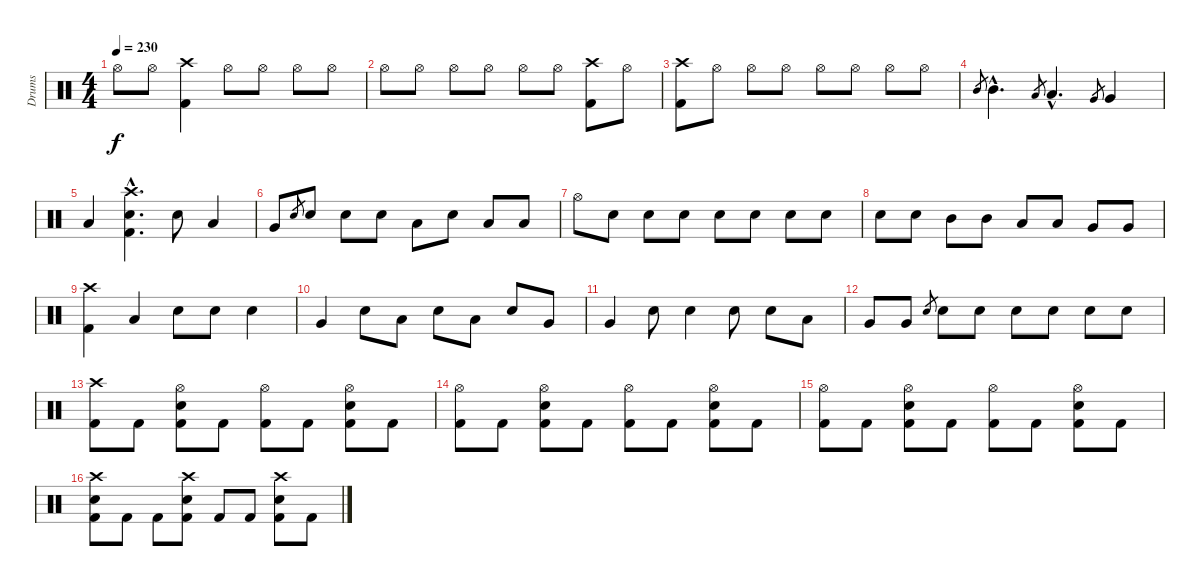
\track ("Drums" "Drums") {instrument percussion}
\staff {score}
\articulation defaults
\ts (4 4)
\tempo 230
\clef neutral
\ks c "Hi-Hat (open)".8{dy f} "Hi-Hat (open)".8
("Crash high (hit)" "Kick (hit) 2").4 "Hi-Hat (open)".8 "Hi-Hat (open)".8 "Hi-Hat (open)".8 "Hi-Hat (open)".8 |
"Hi-Hat (open)".8 "Hi-Hat (open)".8 "Hi-Hat (open)".8 "Hi-Hat (open)".8 "Hi-Hat (open)".8 "Hi-Hat (open)".8 ("Crash high (hit)" "Kick (hit) 2").8 "Hi-Hat (open)".8 |
("Crash high (hit)" "Kick (hit) 2").8 "Hi-Hat (open)".8 "Hi-Hat (open)".8 "Hi-Hat (open)".8 "Hi-Hat (open)".8 "Hi-Hat (open)".8 "Hi-Hat (open)".8 "Hi-Hat (open)".8 |
"Mid Tom (hit)".8{gr} "Mid Tom (hit)"{hac}.4{d} "Low Tom (hit)".8{gr} "Low Tom (hit)"{hac}.4{d} "Very Low Tom (hit)".8{gr} "Very Low Tom (hit)".4 |
"Low Tom (hit)".4 ("Crash high (hit)"{hac} "Electric Snare (hit)"{hac} "Kick (hit) 2"{hac}).4{d} "Electric Snare (hit)".8 "Low Tom (hit)".4 |
"Very Low Tom (hit)".8 "Electric Snare (hit)".8{gr} "Electric Snare (hit)".8 "Electric Snare (hit)".8 "Electric Snare (hit)".8 "Low Tom (hit)".8 "Electric Snare (hit)".8 "Low Tom (hit)".8 "Low Tom (hit)".8 |
"Hi-Hat (open)".8 "Electric Snare (hit)".8 "Electric Snare (hit)".8 "Electric Snare (hit)".8 "Electric Snare (hit)".8 "Electric Snare (hit)".8 "Electric Snare (hit)".8 "Electric Snare (hit)".8 |
"Electric Snare (hit)".8 "Electric Snare (hit)".8 "Mid Tom (hit)".8 "Mid Tom (hit)".8 "Low Tom (hit)".8 "Low Tom (hit)".8 "Very Low Tom (hit)".8 "Very Low Tom (hit)".8 |
("Crash high (hit)" "Kick (hit) 2").4 "Low Tom (hit)".4 "Electric Snare (hit)".8 "Electric Snare (hit)".8 "Electric Snare (hit)".4 |
"Very Low Tom (hit)".4 "Electric Snare (hit)".8 "Low Tom (hit)".8 "Electric Snare (hit)".8 "Low Tom (hit)".8 "Electric Snare (hit)".8 "Very Low Tom (hit)".8 |
"Very Low Tom (hit)".4 "Electric Snare (hit)".8 "Electric Snare (hit)".4 "Electric Snare (hit)".8 "Electric Snare (hit)".8 "Low Tom (hit)".8 |
"Very Low Tom (hit)".8 "Very Low Tom (hit)".8 "Electric Snare (hit)".8{gr} "Electric Snare (hit)".8 "Electric Snare (hit)".8 "Electric Snare (hit)".8 "Electric Snare (hit)".8 "Electric Snare (hit)".8 "Electric Snare (hit)".8 |
("Crash high (hit)" "Kick (hit) 2").8 "Kick (hit) 2".8 ("Hi-Hat (open)" "Electric Snare (hit)" "Kick (hit) 2").8 "Kick (hit) 2".8 ("Hi-Hat (open)" "Kick (hit) 2").8 "Kick (hit) 2".8 ("Hi-Hat (open)" "Electric Snare (hit)" "Kick (hit) 2").8 "Kick (hit) 2".8 |
("Hi-Hat (open)" "Kick (hit) 2").8 "Kick (hit) 2".8 ("Hi-Hat (open)" "Electric Snare (hit)" "Kick (hit) 2").8 "Kick (hit) 2".8 ("Hi-Hat (open)" "Kick (hit) 2").8 "Kick (hit) 2".8 ("Hi-Hat (open)" "Electric Snare (hit)" "Kick (hit) 2").8 "Kick (hit) 2".8 |
("Hi-Hat (open)" "Kick (hit) 2").8 "Kick (hit) 2".8 ("Hi-Hat (open)" "Electric Snare (hit)" "Kick (hit) 2").8 "Kick (hit) 2".8 ("Hi-Hat (open)" "Kick (hit) 2").8 "Kick (hit) 2".8 ("Hi-Hat (open)" "Electric Snare (hit)" "Kick (hit) 2").8 "Kick (hit) 2".8 |
("Crash high (hit)" "Electric Snare (hit)" "Kick (hit) 2").8 "Kick (hit) 2".8 "Kick (hit) 2".8 ("Crash high (hit)" "Electric Snare (hit)" "Kick (hit) 2").8 "Kick (hit) 2".8 "Kick (hit) 2".8 ("Crash high (hit)" "Electric Snare (hit)" "Kick (hit) 2").8 "Kick (hit) 2".8
